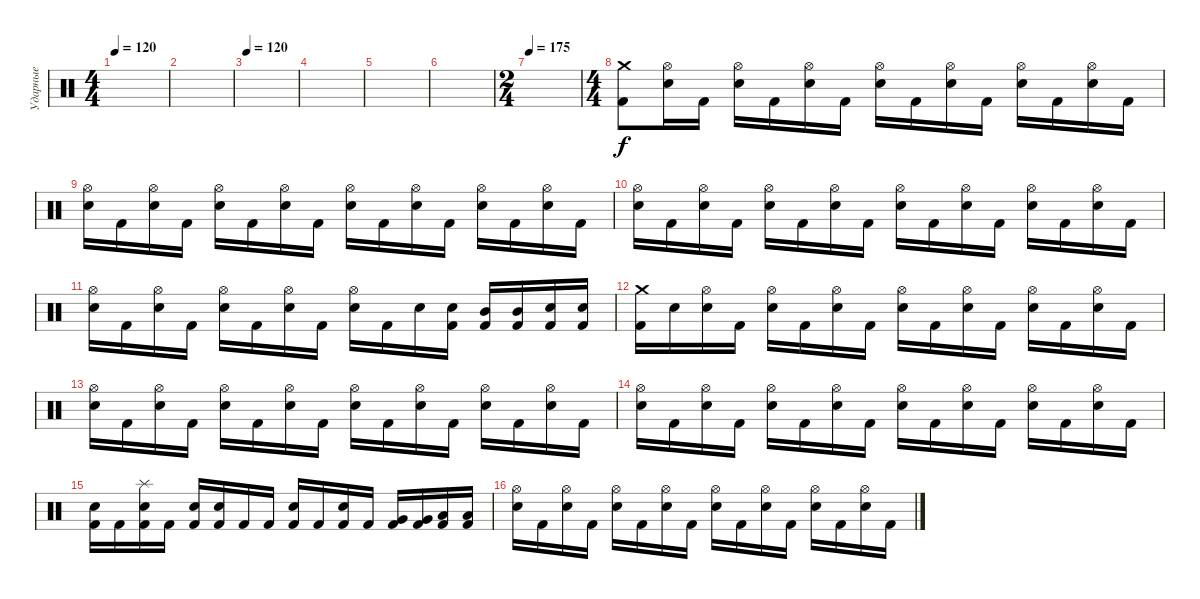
\track ("Ударные" "Ударные") {instrument percussion}
\staff {score}
\articulation defaults
\ts (4 4)
\tempo 120
\clef neutral
\ks c
|
|
\tempo 120
|
|
|
|
\ts (2 4)
\tempo 175
|
\ts (4 4)
("Crash medium (hit)" "Kick (hit) 2").8{dy f} ("Electric Snare (hit)" "Hi-Hat (open)").16 "Kick (hit) 2".16 ("Electric Snare (hit)" "Hi-Hat (open)").16 "Kick (hit) 2".16 ("Electric Snare (hit)" "Hi-Hat (open)").16 "Kick (hit) 2".16 ("Electric Snare (hit)" "Hi-Hat (open)").16 "Kick (hit) 2".16 ("Electric Snare (hit)" "Hi-Hat (open)").16 "Kick (hit) 2".16 ("Electric Snare (hit)" "Hi-Hat (open)").16 "Kick (hit) 2".16 ("Electric Snare (hit)" "Hi-Hat (open)").16 "Kick (hit) 2".16 |
("Electric Snare (hit)" "Hi-Hat (open)").16 "Kick (hit) 2".16 ("Electric Snare (hit)" "Hi-Hat (open)").16 "Kick (hit) 2".16 ("Electric Snare (hit)" "Hi-Hat (open)").16 "Kick (hit) 2".16 ("Electric Snare (hit)" "Hi-Hat (open)").16 "Kick (hit) 2".16 ("Electric Snare (hit)" "Hi-Hat (open)").16 "Kick (hit) 2".16 ("Electric Snare (hit)" "Hi-Hat (open)").16 "Kick (hit) 2".16 ("Electric Snare (hit)" "Hi-Hat (open)").16 "Kick (hit) 2".16 ("Electric Snare (hit)" "Hi-Hat (open)").16 "Kick (hit) 2".16 |
("Electric Snare (hit)" "Hi-Hat (open)").16 "Kick (hit) 2".16 ("Electric Snare (hit)" "Hi-Hat (open)").16 "Kick (hit) 2".16 ("Electric Snare (hit)" "Hi-Hat (open)").16 "Kick (hit) 2".16 ("Electric Snare (hit)" "Hi-Hat (open)").16 "Kick (hit) 2".16 ("Electric Snare (hit)" "Hi-Hat (open)").16 "Kick (hit) 2".16 ("Electric Snare (hit)" "Hi-Hat (open)").16 "Kick (hit) 2".16 ("Electric Snare (hit)" "Hi-Hat (open)").16 "Kick (hit) 2".16 ("Electric Snare (hit)" "Hi-Hat (open)").16 "Kick (hit) 2".16 |
("Electric Snare (hit)" "Hi-Hat (open)").16 "Kick (hit) 2".16 ("Electric Snare (hit)" "Hi-Hat (open)").16 "Kick (hit) 2".16 ("Electric Snare (hit)" "Hi-Hat (open)").16 "Kick (hit) 2".16 ("Electric Snare (hit)" "Hi-Hat (open)").16 "Kick (hit) 2".16 ("Electric Snare (hit)" "Hi-Hat (open)").16 "Kick (hit) 2".16 "Electric Snare (hit)".16 ("Electric Snare (hit)" "Kick (hit) 2").16 ("Mid Tom (hit)" "Kick (hit) 2").16 ("Mid Tom (hit)" "Kick (hit) 2").16 ("Electric Snare (hit)" "Kick (hit) 2").16 ("Electric Snare (hit)" "Kick (hit) 2").16 |
("Crash medium (hit)" "Kick (hit) 2").16 "Snare (hit)".16 ("Electric Snare (hit)" "Hi-Hat (open)").16 "Kick (hit) 2".16 ("Electric Snare (hit)" "Hi-Hat (open)").16 "Kick (hit) 2".16 ("Electric Snare (hit)" "Hi-Hat (open)").16 "Kick (hit) 2".16 ("Electric Snare (hit)" "Hi-Hat (open)").16 "Kick (hit) 2".16 ("Electric Snare (hit)" "Hi-Hat (open)").16 "Kick (hit) 2".16 ("Electric Snare (hit)" "Hi-Hat (open)").16 "Kick (hit) 2".16 ("Electric Snare (hit)" "Hi-Hat (open)").16 "Kick (hit) 2".16 |
("Electric Snare (hit)" "Hi-Hat (open)").16 "Kick (hit) 2".16 ("Electric Snare (hit)" "Hi-Hat (open)").16 "Kick (hit) 2".16 ("Electric Snare (hit)" "Hi-Hat (open)").16 "Kick (hit) 2".16 ("Electric Snare (hit)" "Hi-Hat (open)").16 "Kick (hit) 2".16 ("Electric Snare (hit)" "Hi-Hat (open)").16 "Kick (hit) 2".16 ("Electric Snare (hit)" "Hi-Hat (open)").16 "Kick (hit) 2".16 ("Electric Snare (hit)" "Hi-Hat (open)").16 "Kick (hit) 2".16 ("Electric Snare (hit)" "Hi-Hat (open)").16 "Kick (hit) 2".16 |
("Electric Snare (hit)" "Hi-Hat (open)").16 "Kick (hit) 2".16 ("Electric Snare (hit)" "Hi-Hat (open)").16 "Kick (hit) 2".16 ("Electric Snare (hit)" "Hi-Hat (open)").16 "Kick (hit) 2".16 ("Electric Snare (hit)" "Hi-Hat (open)").16 "Kick (hit) 2".16 ("Electric Snare (hit)" "Hi-Hat (open)").16 "Kick (hit) 2".16 ("Electric Snare (hit)" "Hi-Hat (open)").16 "Kick (hit) 2".16 ("Electric Snare (hit)" "Hi-Hat (open)").16 "Kick (hit) 2".16 ("Electric Snare (hit)" "Hi-Hat (open)").16 "Kick (hit) 2".16 |
("Electric Snare (hit)" "Kick (hit) 2").16 "Kick (hit) 2".16 ("Electric Snare (hit)" "Splash (hit)" "Kick (hit) 2").16 "Kick (hit) 2".16 ("Electric Snare (hit)" "Kick (hit) 2").16 ("Electric Snare (hit)" "Kick (hit) 2").16 "Kick (hit) 2".16 "Kick (hit) 2".16 ("Electric Snare (hit)" "Kick (hit) 2").16 "Kick (hit) 2".16 ("Electric Snare (hit)" "Kick (hit) 2").16 "Kick (hit) 2".16 ("Very Low Tom (hit)" "Kick (hit) 2").16 ("Very Low Tom (hit)" "Kick (hit) 2").16 ("Low Floor Tom (hit)" "Kick (hit) 2").16 ("Low Floor Tom (hit)" "Kick (hit) 2").16 |
("Electric Snare (hit)" "Hi-Hat (open)").16 "Kick (hit) 2".16 ("Electric Snare (hit)" "Hi-Hat (open)").16 "Kick (hit) 2".16 ("Electric Snare (hit)" "Hi-Hat (open)").16 "Kick (hit) 2".16 ("Electric Snare (hit)" "Hi-Hat (open)").16 "Kick (hit) 2".16 ("Electric Snare (hit)" "Hi-Hat (open)").16 "Kick (hit) 2".16 ("Electric Snare (hit)" "Hi-Hat (open)").16 "Kick (hit) 2".16 ("Electric Snare (hit)" "Hi-Hat (open)").16 "Kick (hit) 2".16 ("Electric Snare (hit)" "Hi-Hat (open)").16 "Kick (hit) 2".16
